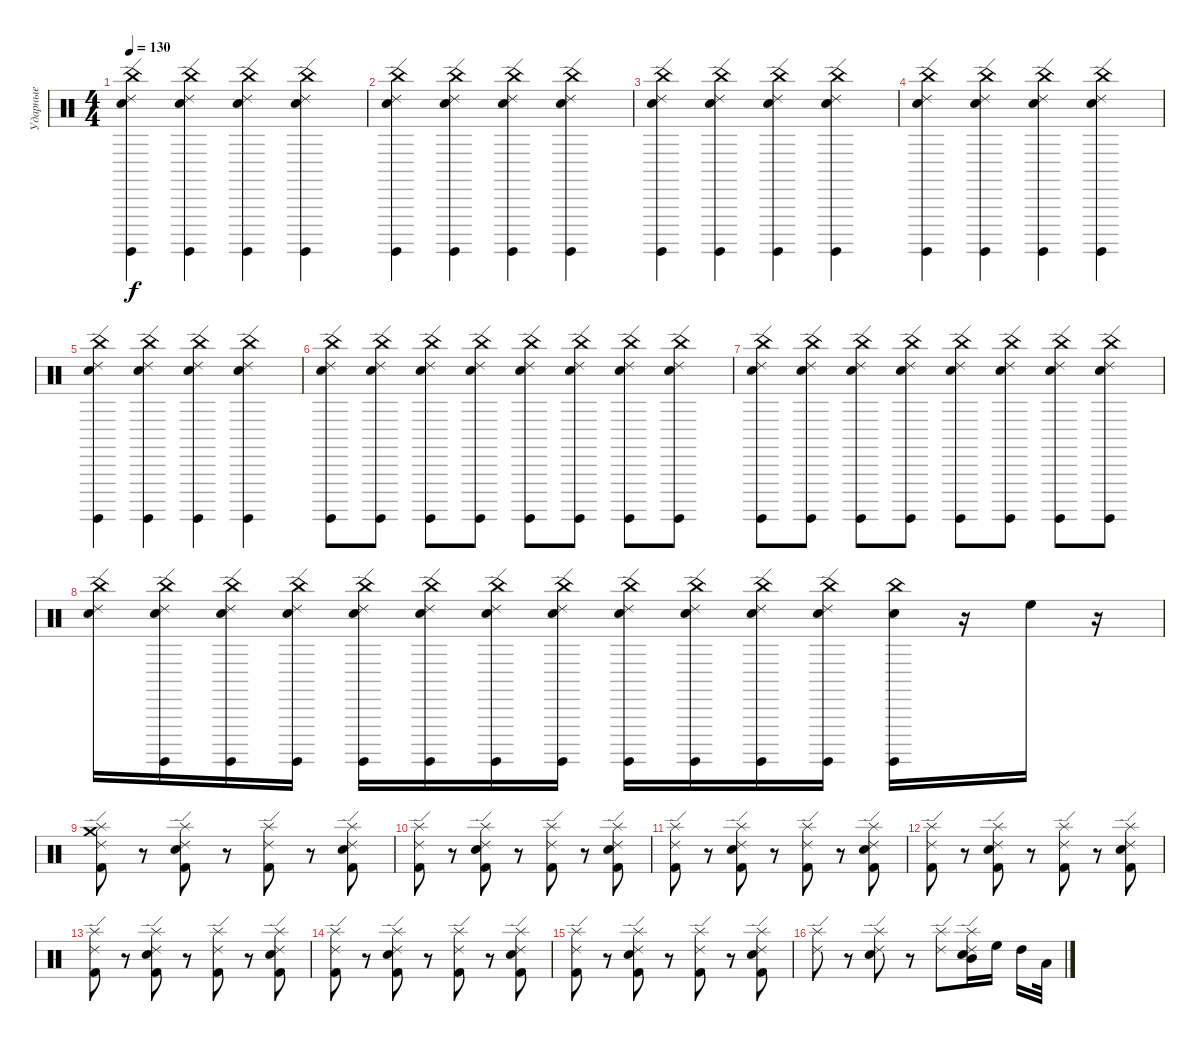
\track ("Ударные" "Ударные") {instrument percussion}
\staff {score}
\articulation defaults
\ts (4 4)
\tempo 130
\clef neutral
\ks c
("Snare (hit) 2" "Surdo (hit)" "Ride (edge) 2" "China (hit)").4{dy f} ("Snare (hit) 2" "Surdo (hit)" "Ride (edge) 2" "China (hit)").4 ("Snare (hit) 2" "Surdo (hit)" "Ride (edge) 2" "China (hit)").4 ("Snare (hit) 2" "Surdo (hit)" "Ride (edge) 2" "China (hit)").4 |
("Snare (hit) 2" "Surdo (hit)" "Ride (edge) 2" "China (hit)").4 ("Snare (hit) 2" "Surdo (hit)" "Ride (edge) 2" "China (hit)").4 ("Snare (hit) 2" "Surdo (hit)" "Ride (edge) 2" "China (hit)").4 ("Snare (hit) 2" "Surdo (hit)" "Ride (edge) 2" "China (hit)").4 |
("Snare (hit) 2" "Surdo (hit)" "Ride (edge) 2" "China (hit)").4 ("Snare (hit) 2" "Surdo (hit)" "Ride (edge) 2" "China (hit)").4 ("Snare (hit) 2" "Surdo (hit)" "Ride (edge) 2" "China (hit)").4 ("Snare (hit) 2" "Surdo (hit)" "Ride (edge) 2" "China (hit)").4 |
("Snare (hit) 2" "Surdo (hit)" "Ride (edge) 2" "China (hit)").4 ("Snare (hit) 2" "Surdo (hit)" "Ride (edge) 2" "China (hit)").4 ("Snare (hit) 2" "Surdo (hit)" "Ride (edge) 2" "China (hit)").4 ("Snare (hit) 2" "Surdo (hit)" "Ride (edge) 2" "China (hit)").4 |
("Snare (hit) 2" "Surdo (hit)" "Ride (edge) 2" "China (hit)").4 ("Snare (hit) 2" "Surdo (hit)" "Ride (edge) 2" "China (hit)").4 ("Snare (hit) 2" "Surdo (hit)" "Ride (edge) 2" "China (hit)").4 ("Snare (hit) 2" "Surdo (hit)" "Ride (edge) 2" "China (hit)").4 |
("Snare (hit) 2" "Surdo (hit)" "Ride (edge) 2" "China (hit)").8 ("Snare (hit) 2" "Surdo (hit)" "Ride (edge) 2" "China (hit)").8 ("Snare (hit) 2" "Surdo (hit)" "Ride (edge) 2" "China (hit)").8 ("Snare (hit) 2" "Surdo (hit)" "Ride (edge) 2" "China (hit)").8 ("Snare (hit) 2" "Surdo (hit)" "Ride (edge) 2" "China (hit)").8 ("Snare (hit) 2" "Surdo (hit)" "Ride (edge) 2" "China (hit)").8 ("Snare (hit) 2" "Surdo (hit)" "Ride (edge) 2" "China (hit)").8 ("Snare (hit) 2" "Surdo (hit)" "Ride (edge) 2" "China (hit)").8 |
("Snare (hit) 2" "Surdo (hit)" "Ride (edge) 2" "China (hit)").8 ("Snare (hit) 2" "Surdo (hit)" "Ride (edge) 2" "China (hit)").8 ("Snare (hit) 2" "Surdo (hit)" "Ride (edge) 2" "China (hit)").8 ("Snare (hit) 2" "Surdo (hit)" "Ride (edge) 2" "China (hit)").8 ("Snare (hit) 2" "Surdo (hit)" "Ride (edge) 2" "China (hit)").8 ("Snare (hit) 2" "Surdo (hit)" "Ride (edge) 2" "China (hit)").8 ("Snare (hit) 2" "Surdo (hit)" "Ride (edge) 2" "China (hit)").8 ("Snare (hit) 2" "Surdo (hit)" "Ride (edge) 2" "China (hit)").8 |
("Snare (hit) 2" "Ride (edge) 2" "China (hit)").16 ("Snare (hit) 2" "Surdo (hit)" "Ride (edge) 2" "China (hit)").16 ("Snare (hit) 2" "Surdo (hit)" "Ride (edge) 2" "China (hit)").16 ("Snare (hit) 2" "Surdo (hit)" "Ride (edge) 2" "China (hit)").16 ("Snare (hit) 2" "Surdo (hit)" "Ride (edge) 2" "China (hit)").16 ("Snare (hit) 2" "Surdo (hit)" "Ride (edge) 2" "China (hit)").16 ("Snare (hit) 2" "Surdo (hit)" "Ride (edge) 2" "China (hit)").16 ("Snare (hit) 2" "Surdo (hit)" "Ride (edge) 2" "China (hit)").16 ("Snare (hit) 2" "Surdo (hit)" "Ride (edge) 2" "China (hit)").16 ("Snare (hit) 2" "Surdo (hit)" "Ride (edge) 2" "China (hit)").16 ("Snare (hit) 2" "Surdo (hit)" "Ride (edge) 2" "China (hit)").16 ("Snare (hit) 2" "Surdo (hit)" "Ride (edge) 2" "China (hit)").16 ("Snare (hit) 2" "Surdo (hit)" "China (hit)").16 r.16 "High Floor Tom (hit)".16 r.16 |
("Kick (hit) 2" "Ride (edge) 2" "Splash (hit)" "Crash medium (hit)").8 r.8 ("Kick (hit) 2" "Hand Clap (hit)" "Ride (edge) 2" "Splash (hit)").8 r.8 ("Kick (hit) 2" "Ride (edge) 2" "Splash (hit)").8 r.8 ("Kick (hit) 2" "Hand Clap (hit)" "Ride (edge) 2" "Splash (hit)").8 |
("Kick (hit) 2" "Ride (edge) 2" "Splash (hit)").8 r.8 ("Kick (hit) 2" "Hand Clap (hit)" "Ride (edge) 2" "Splash (hit)").8 r.8 ("Kick (hit) 2" "Ride (edge) 2" "Splash (hit)").8 r.8 ("Kick (hit) 2" "Hand Clap (hit)" "Ride (edge) 2" "Splash (hit)").8 |
("Kick (hit) 2" "Ride (edge) 2" "Splash (hit)").8 r.8 ("Kick (hit) 2" "Hand Clap (hit)" "Ride (edge) 2" "Splash (hit)").8 r.8 ("Kick (hit) 2" "Ride (edge) 2" "Splash (hit)").8 r.8 ("Kick (hit) 2" "Hand Clap (hit)" "Ride (edge) 2" "Splash (hit)").8 |
("Kick (hit) 2" "Ride (edge) 2" "Splash (hit)").8 r.8 ("Kick (hit) 2" "Hand Clap (hit)" "Ride (edge) 2" "Splash (hit)").8 r.8 ("Kick (hit) 2" "Ride (edge) 2" "Splash (hit)").8 r.8 ("Kick (hit) 2" "Hand Clap (hit)" "Ride (edge) 2" "Splash (hit)").8 |
("Kick (hit) 2" "Ride (edge) 2" "Splash (hit)").8 r.8 ("Kick (hit) 2" "Hand Clap (hit)" "Ride (edge) 2" "Splash (hit)").8 r.8 ("Kick (hit) 2" "Ride (edge) 2" "Splash (hit)").8 r.8 ("Kick (hit) 2" "Hand Clap (hit)" "Ride (edge) 2" "Splash (hit)").8 |
("Kick (hit) 2" "Ride (edge) 2" "Splash (hit)").8 r.8 ("Kick (hit) 2" "Hand Clap (hit)" "Ride (edge) 2" "Splash (hit)").8 r.8 ("Kick (hit) 2" "Ride (edge) 2" "Splash (hit)").8 r.8 ("Kick (hit) 2" "Hand Clap (hit)" "Ride (edge) 2" "Splash (hit)").8 |
("Kick (hit) 2" "Ride (edge) 2" "Splash (hit)").8 r.8 ("Kick (hit) 2" "Hand Clap (hit)" "Ride (edge) 2" "Splash (hit)").8 r.8 ("Kick (hit) 2" "Ride (edge) 2" "Splash (hit)").8 r.8 ("Kick (hit) 2" "Hand Clap (hit)" "Ride (edge) 2" "Splash (hit)").8 |
("Ride (edge) 2" "Splash (hit)").8 r.8 ("Hand Clap (hit)" "Ride (edge) 2" "Splash (hit)").8 r.8 ("Ride (edge) 2" "Splash (hit)").8 ("Mid Tom (hit)" "Hand Clap (hit)" "Ride (edge) 2" "Splash (hit)").16 "High Floor Tom (hit)".16 "High Tom (hit)".16 "Low Tom (hit)".32
